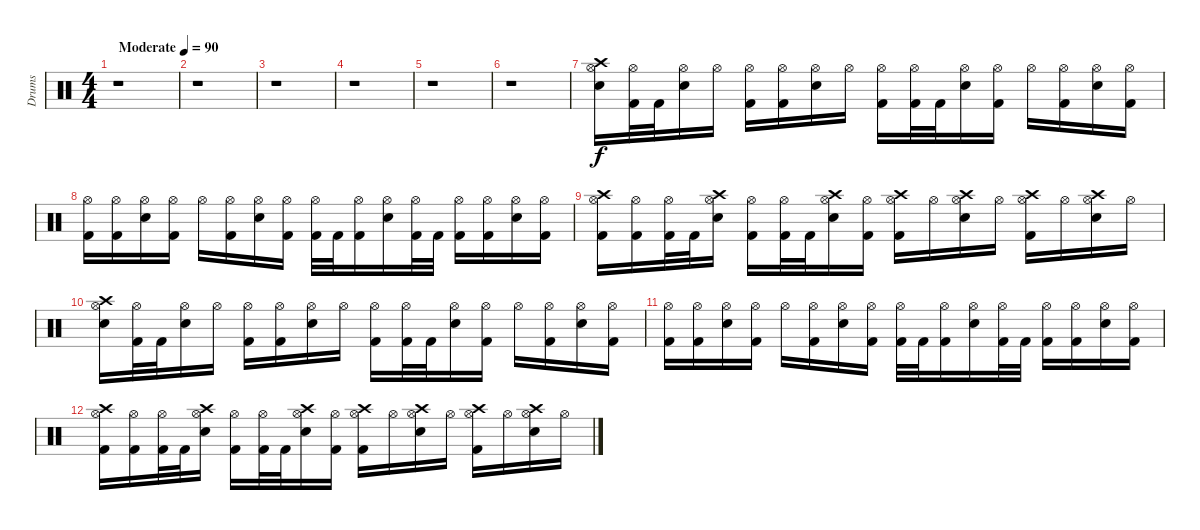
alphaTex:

\track ("Drums" "Drums") {instrument percussion}
\staff {score}
\articulation defaults
\ts (4 4)
\tempo (90 "Moderate")
\clef neutral
\ks c
r.1{dy f} |
r.1 |
r.1 |
r.1 |
r.1 |
r.1 |
("Crash high (hit)" "Hi-Hat (open)" "Snare (hit) 2").16 ("Hi-Hat (open)" "Kick (hit) 2").32 "Kick (hit) 2".32 ("Hi-Hat (open)" "Snare (hit) 2").16 "Hi-Hat (open)".16 ("Hi-Hat (open)" "Kick (hit) 2").16 ("Hi-Hat (open)" "Kick (hit) 2").16 ("Hi-Hat (open)" "Snare (hit) 2").16 "Hi-Hat (open)".16 ("Hi-Hat (open)" "Kick (hit) 2").16 ("Hi-Hat (open)" "Kick (hit) 2").32 "Kick (hit) 2".32 ("Hi-Hat (open)" "Snare (hit) 2").16 ("Hi-Hat (open)" "Kick (hit) 2").16 "Hi-Hat (open)".16 ("Hi-Hat (open)" "Kick (hit) 2").16 ("Hi-Hat (open)" "Snare (hit) 2").16 ("Hi-Hat (open)" "Kick (hit) 2").16 |
("Hi-Hat (open)" "Kick (hit) 2").16 ("Hi-Hat (open)" "Kick (hit) 2").16 ("Hi-Hat (open)" "Snare (hit) 2").16 ("Hi-Hat (open)" "Kick (hit) 2").16 "Hi-Hat (open)".16 ("Hi-Hat (open)" "Kick (hit) 2").16 ("Hi-Hat (open)" "Snare (hit) 2").16 ("Hi-Hat (open)" "Kick (hit) 2").16 ("Hi-Hat (open)" "Kick (hit) 2").32 "Kick (hit) 2".32 ("Hi-Hat (open)" "Kick (hit) 2").16 ("Hi-Hat (open)" "Snare (hit) 2").16 ("Hi-Hat (open)" "Kick (hit) 2").32 "Kick (hit) 2".32 ("Hi-Hat (open)" "Kick (hit) 2").16 ("Hi-Hat (open)" "Kick (hit) 2").16 ("Hi-Hat (open)" "Snare (hit) 2").16 ("Hi-Hat (open)" "Kick (hit) 2").16 |
("Kick (hit) 2" "Hi-Hat (open)" "Crash high (hit)").16 ("Kick (hit) 2" "Hi-Hat (open)").16 ("Kick (hit) 2" "Hi-Hat (open)").32 "Kick (hit) 2".32 ("Snare (hit) 2" "Crash high (hit)" "Hi-Hat (open)").16 ("Kick (hit) 2" "Hi-Hat (open)").16 ("Kick (hit) 2" "Hi-Hat (open)").32 "Kick (hit) 2".32 ("Crash high (hit)" "Snare (hit) 2" "Hi-Hat (open)").16 ("Kick (hit) 2" "Hi-Hat (open)").16 ("Kick (hit) 2" "Hi-Hat (open)" "Crash high (hit)").16 "Hi-Hat (open)".16 ("Snare (hit) 2" "Hi-Hat (open)" "Crash high (hit)").16 "Hi-Hat (open)".16 ("Kick (hit) 2" "Hi-Hat (open)" "Crash high (hit)").16 "Hi-Hat (open)".16 ("Snare (hit) 2" "Hi-Hat (open)" "Crash high (hit)").16 "Hi-Hat (open)".16 |
("Crash high (hit)" "Hi-Hat (open)" "Snare (hit) 2").16 ("Hi-Hat (open)" "Kick (hit) 2").32 "Kick (hit) 2".32 ("Hi-Hat (open)" "Snare (hit) 2").16 "Hi-Hat (open)".16 ("Hi-Hat (open)" "Kick (hit) 2").16 ("Hi-Hat (open)" "Kick (hit) 2").16 ("Hi-Hat (open)" "Snare (hit) 2").16 "Hi-Hat (open)".16 ("Hi-Hat (open)" "Kick (hit) 2").16 ("Hi-Hat (open)" "Kick (hit) 2").32 "Kick (hit) 2".32 ("Hi-Hat (open)" "Snare (hit) 2").16 ("Hi-Hat (open)" "Kick (hit) 2").16 "Hi-Hat (open)".16 ("Hi-Hat (open)" "Kick (hit) 2").16 ("Hi-Hat (open)" "Snare (hit) 2").16 ("Hi-Hat (open)" "Kick (hit) 2").16 |
("Hi-Hat (open)" "Kick (hit) 2").16 ("Hi-Hat (open)" "Kick (hit) 2").16 ("Hi-Hat (open)" "Snare (hit) 2").16 ("Hi-Hat (open)" "Kick (hit) 2").16 "Hi-Hat (open)".16 ("Hi-Hat (open)" "Kick (hit) 2").16 ("Hi-Hat (open)" "Snare (hit) 2").16 ("Hi-Hat (open)" "Kick (hit) 2").16 ("Hi-Hat (open)" "Kick (hit) 2").32 "Kick (hit) 2".32 ("Hi-Hat (open)" "Kick (hit) 2").16 ("Hi-Hat (open)" "Snare (hit) 2").16 ("Hi-Hat (open)" "Kick (hit) 2").32 "Kick (hit) 2".32 ("Hi-Hat (open)" "Kick (hit) 2").16 ("Hi-Hat (open)" "Kick (hit) 2").16 ("Hi-Hat (open)" "Snare (hit) 2").16 ("Hi-Hat (open)" "Kick (hit) 2").16 |
("Kick (hit) 2" "Hi-Hat (open)" "Crash high (hit)").16 ("Kick (hit) 2" "Hi-Hat (open)").16 ("Kick (hit) 2" "Hi-Hat (open)").32 "Kick (hit) 2".32 ("Snare (hit) 2" "Crash high (hit)" "Hi-Hat (open)").16 ("Kick (hit) 2" "Hi-Hat (open)").16 ("Kick (hit) 2" "Hi-Hat (open)").32 "Kick (hit) 2".32 ("Crash high (hit)" "Snare (hit) 2" "Hi-Hat (open)").16 ("Kick (hit) 2" "Hi-Hat (open)").16 ("Kick (hit) 2" "Hi-Hat (open)" "Crash high (hit)").16 "Hi-Hat (open)".16 ("Snare (hit) 2" "Hi-Hat (open)" "Crash high (hit)").16 "Hi-Hat (open)".16 ("Kick (hit) 2" "Hi-Hat (open)" "Crash high (hit)").16 "Hi-Hat (open)".16 ("Snare (hit) 2" "Hi-Hat (open)" "Crash high (hit)").16 "Hi-Hat (open)".16
